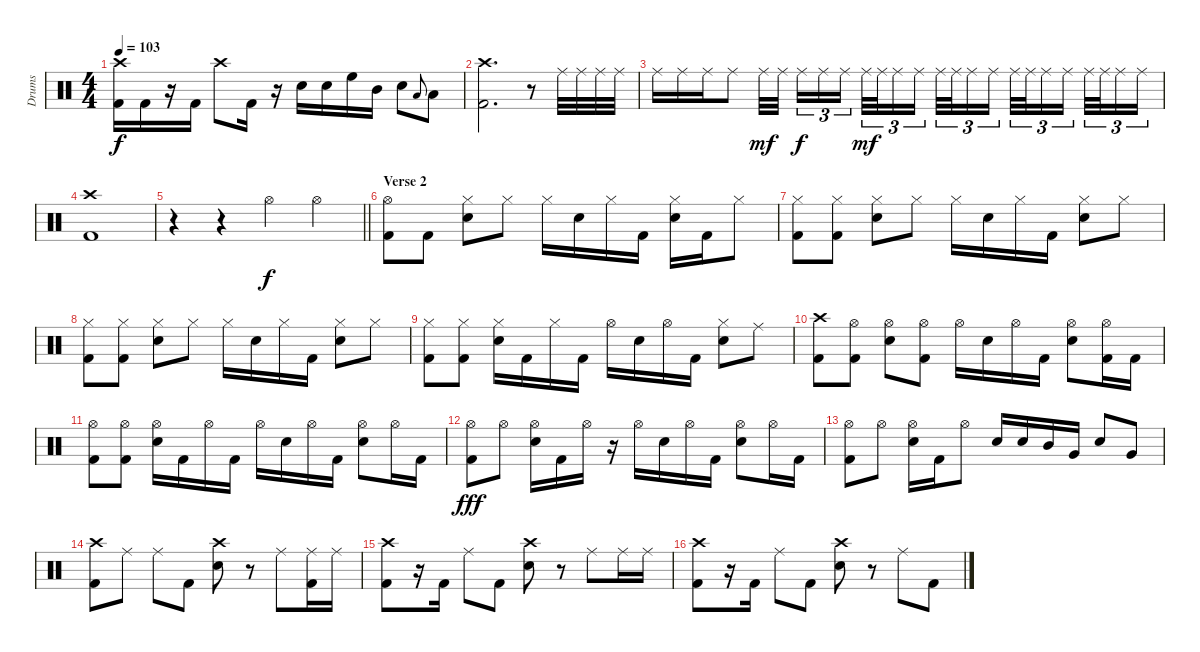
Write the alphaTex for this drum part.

\track ("Drums" "Drums") {instrument percussion}
\staff {score}
\articulation defaults
\ts (4 4)
\tempo 103
\clef neutral
\ks c
("Kick (hit) 2" "Crash high (hit)").16{dy f} "Kick (hit) 2".16 r.16 "Kick (hit) 2".16 "Crash high (hit)".8 "Kick (hit) 2".16 r.16 "Snare (hit) 2".16 "Snare (hit) 2".16 "High Floor Tom (hit)".16 "Mid Tom (hit)".16 "Snare (hit) 2".8 "Low Tom (hit)".8{gr onbeat} "Low Tom (hit)".8 |
("Crash high (hit)" "Kick (hit) 2").2{d} r.8 "Ride (middle)".32 "Ride (middle)".32 "Ride (middle)".32 "Ride (middle)".32 |
"Ride (middle)".16 "Ride (middle)".16 "Ride (middle)".16 "Ride (middle)".8 "Ride (middle)".32{dy mf} "Ride (middle)".32{beam splitsecondary} "Ride (middle)".16{tu (3 2) dy f} "Ride (middle)".16{tu (3 2)} "Ride (middle)".16{tu (3 2)} "Ride (middle)".32{tu (3 2) dy mf} "Ride (middle)".32{tu (3 2)} "Ride (middle)".16{tu (3 2)} "Ride (middle)".16{tu (3 2) beam splitsecondary} "Ride (middle)".32{tu (3 2)} "Ride (middle)".32{tu (3 2)} "Ride (middle)".16{tu (3 2)} "Ride (middle)".16{tu (3 2)} "Ride (middle)".32{tu (3 2)} "Ride (middle)".32{tu (3 2)} "Ride (middle)".16{tu (3 2)} "Ride (middle)".16{tu (3 2) beam splitsecondary} "Ride (middle)".32{tu (3 2)} "Ride (middle)".32{tu (3 2)} "Ride (middle)".16{tu (3 2)} "Ride (middle)".16{tu (3 2)} |
("Crash high (hit)" "Kick (hit) 2").1 |
\barLineRight lightlight
r.4 r.4 "Hi-Hat (open)".4{dy f} "Hi-Hat (open)".4 |
\section ("" "Verse 2")
("Hi-Hat (open)" "Kick (hit) 2").8 "Kick (hit) 2".8 ("Hi-Hat (closed)" "Snare (hit) 2").8 "Hi-Hat (closed)".8 "Hi-Hat (closed)".16 "Snare (hit) 2".16 "Hi-Hat (closed)".16 "Kick (hit) 2".16 ("Hi-Hat (closed)" "Snare (hit) 2").16 "Kick (hit) 2".16 "Hi-Hat (closed)".8 |
("Hi-Hat (closed)" "Kick (hit) 2").8 ("Hi-Hat (closed)" "Kick (hit) 2").8 ("Hi-Hat (closed)" "Snare (hit) 2").8 "Hi-Hat (closed)".8 "Hi-Hat (closed)".16 "Snare (hit) 2".16 "Hi-Hat (closed)".16 "Kick (hit) 2".16 ("Hi-Hat (closed)" "Snare (hit) 2").8 "Hi-Hat (closed)".8 |
("Hi-Hat (closed)" "Kick (hit) 2").8 ("Hi-Hat (closed)" "Kick (hit) 2").8 ("Hi-Hat (closed)" "Snare (hit) 2").8 "Hi-Hat (closed)".8 "Hi-Hat (closed)".16 "Snare (hit) 2".16 "Hi-Hat (closed)".16 "Kick (hit) 2".16 ("Hi-Hat (closed)" "Snare (hit) 2").8 "Hi-Hat (closed)".8 |
("Hi-Hat (closed)" "Kick (hit) 2").8 ("Hi-Hat (closed)" "Kick (hit) 2").8 ("Hi-Hat (closed)" "Snare (hit) 2").16 "Kick (hit) 2".16 "Hi-Hat (closed)".16 "Kick (hit) 2".16 "Hi-Hat (open)".16 "Snare (hit) 2".16 "Hi-Hat (open)".16 "Kick (hit) 2".16 ("Hi-Hat (closed)" "Snare (hit) 2").8 "Ride (middle)".8 |
("Crash high (hit)" "Kick (hit) 2").8 ("Hi-Hat (open)" "Kick (hit) 2").8 ("Hi-Hat (open)" "Snare (hit) 2").8 ("Hi-Hat (open)" "Kick (hit) 2").8 "Hi-Hat (open)".16 "Snare (hit) 2".16 "Hi-Hat (open)".16 "Kick (hit) 2".16 ("Hi-Hat (open)" "Snare (hit) 2").8 ("Hi-Hat (open)" "Kick (hit) 2").16 "Kick (hit) 2".16 |
("Hi-Hat (open)" "Kick (hit) 2").8 ("Hi-Hat (open)" "Kick (hit) 2").8 ("Hi-Hat (open)" "Snare (hit) 2").16 "Kick (hit) 2".16 "Hi-Hat (open)".16 "Kick (hit) 2".16 "Hi-Hat (open)".16 "Snare (hit) 2".16 "Hi-Hat (open)".16 "Kick (hit) 2".16 ("Hi-Hat (open)" "Snare (hit) 2").8 "Hi-Hat (open)".16 "Kick (hit) 2".16 |
("Hi-Hat (open)" "Kick (hit) 2").8{dy fff} "Hi-Hat (open)".8 ("Hi-Hat (open)" "Snare (hit) 2").16 "Kick (hit) 2".16 "Hi-Hat (open)".16 r.16 "Hi-Hat (open)".16 "Snare (hit) 2".16 "Hi-Hat (open)".16 "Kick (hit) 2".16 ("Hi-Hat (open)" "Snare (hit) 2").8 "Hi-Hat (open)".16 "Kick (hit) 2".16 |
("Hi-Hat (open)" "Kick (hit) 2").8 "Hi-Hat (open)".8 ("Hi-Hat (open)" "Snare (hit) 2").16 "Kick (hit) 2".16 "Hi-Hat (open)".8 "Snare (hit) 2".16 "Snare (hit) 2".16 "Mid Tom (hit)".16 "Very Low Tom (hit)".16 "Snare (hit) 2".8 "Very Low Tom (hit)".8 |
("Crash high (hit)" "Kick (hit) 2").8 "Ride (middle)".8 "Ride (middle)".8 "Kick (hit) 2".8 ("Crash high (hit)" "Snare (hit) 2").8 r.8 "Ride (middle)".8 ("Ride (middle)" "Kick (hit) 2").16 "Ride (middle)".16 |
("Crash high (hit)" "Kick (hit) 2").8 r.16 "Kick (hit) 2".16 "Ride (middle)".8 "Kick (hit) 2".8 ("Crash high (hit)" "Snare (hit) 2").8 r.8 "Ride (middle)".8 "Ride (middle)".16 "Ride (middle)".16 |
("Crash high (hit)" "Kick (hit) 2").8 r.16 "Kick (hit) 2".16 "Ride (middle)".8 "Kick (hit) 2".8 ("Crash high (hit)" "Snare (hit) 2").8 r.8 "Ride (middle)".8 "Kick (hit) 2".8
